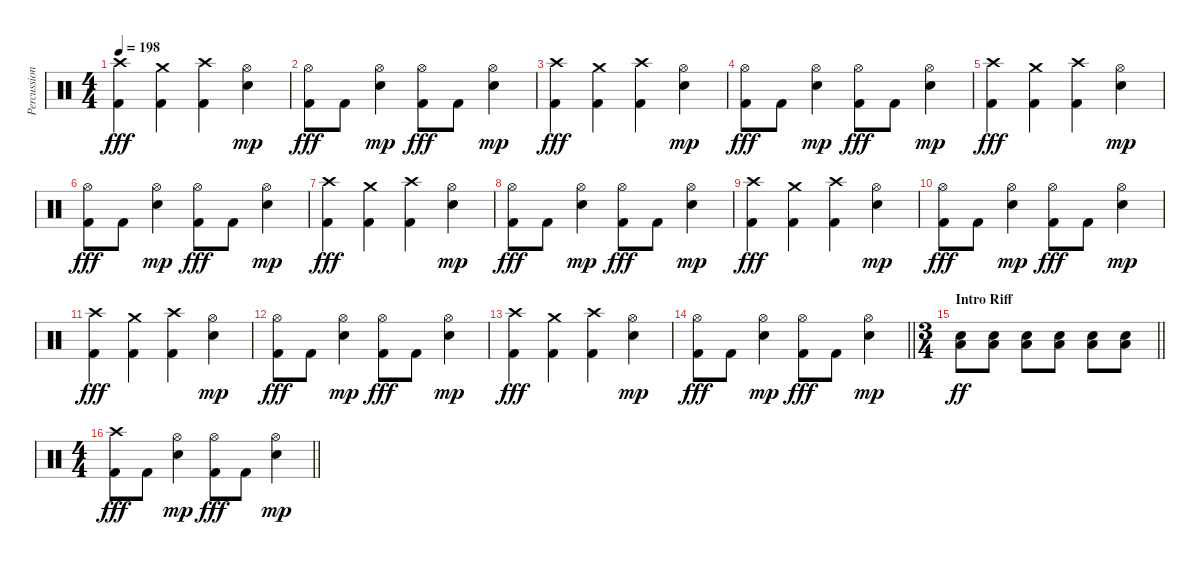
\track ("Percussion" "Percussion") {instrument percussion}
\staff {score}
\articulation defaults
\ts (4 4)
\tempo 198
\clef neutral
\ks c
("Crash high (hit)" "Kick (hit) 2").4{dy fff} ("Crash medium (hit)" "Kick (hit) 2").4 ("Crash high (hit)" "Kick (hit) 2").4 ("Hi-Hat (open)" "Snare (hit) 2").4{dy mp} |
("Hi-Hat (open)" "Kick (hit) 2").8{dy fff} "Kick (hit) 2".8 ("Hi-Hat (open)" "Snare (hit) 2").4{dy mp} ("Hi-Hat (open)" "Kick (hit) 2").8{dy fff} "Kick (hit) 2".8 ("Hi-Hat (open)" "Snare (hit) 2").4{dy mp} |
("Crash high (hit)" "Kick (hit) 2").4{dy fff} ("Crash medium (hit)" "Kick (hit) 2").4 ("Crash high (hit)" "Kick (hit) 2").4 ("Hi-Hat (open)" "Snare (hit) 2").4{dy mp} |
("Hi-Hat (open)" "Kick (hit) 2").8{dy fff} "Kick (hit) 2".8 ("Hi-Hat (open)" "Snare (hit) 2").4{dy mp} ("Hi-Hat (open)" "Kick (hit) 2").8{dy fff} "Kick (hit) 2".8 ("Hi-Hat (open)" "Snare (hit) 2").4{dy mp} |
("Crash high (hit)" "Kick (hit) 2").4{dy fff} ("Crash medium (hit)" "Kick (hit) 2").4 ("Crash high (hit)" "Kick (hit) 2").4 ("Hi-Hat (open)" "Snare (hit) 2").4{dy mp} |
("Hi-Hat (open)" "Kick (hit) 2").8{dy fff} "Kick (hit) 2".8 ("Hi-Hat (open)" "Snare (hit) 2").4{dy mp} ("Hi-Hat (open)" "Kick (hit) 2").8{dy fff} "Kick (hit) 2".8 ("Hi-Hat (open)" "Snare (hit) 2").4{dy mp} |
("Crash high (hit)" "Kick (hit) 2").4{dy fff} ("Crash medium (hit)" "Kick (hit) 2").4 ("Crash high (hit)" "Kick (hit) 2").4 ("Hi-Hat (open)" "Snare (hit) 2").4{dy mp} |
("Hi-Hat (open)" "Kick (hit) 2").8{dy fff} "Kick (hit) 2".8 ("Hi-Hat (open)" "Snare (hit) 2").4{dy mp} ("Hi-Hat (open)" "Kick (hit) 2").8{dy fff} "Kick (hit) 2".8 ("Hi-Hat (open)" "Snare (hit) 2").4{dy mp} |
("Crash high (hit)" "Kick (hit) 2").4{dy fff} ("Crash medium (hit)" "Kick (hit) 2").4 ("Crash high (hit)" "Kick (hit) 2").4 ("Hi-Hat (open)" "Snare (hit) 2").4{dy mp} |
("Hi-Hat (open)" "Kick (hit) 2").8{dy fff} "Kick (hit) 2".8 ("Hi-Hat (open)" "Snare (hit) 2").4{dy mp} ("Hi-Hat (open)" "Kick (hit) 2").8{dy fff} "Kick (hit) 2".8 ("Hi-Hat (open)" "Snare (hit) 2").4{dy mp} |
("Crash high (hit)" "Kick (hit) 2").4{dy fff} ("Crash medium (hit)" "Kick (hit) 2").4 ("Crash high (hit)" "Kick (hit) 2").4 ("Hi-Hat (open)" "Snare (hit) 2").4{dy mp} |
("Hi-Hat (open)" "Kick (hit) 2").8{dy fff} "Kick (hit) 2".8 ("Hi-Hat (open)" "Snare (hit) 2").4{dy mp} ("Hi-Hat (open)" "Kick (hit) 2").8{dy fff} "Kick (hit) 2".8 ("Hi-Hat (open)" "Snare (hit) 2").4{dy mp} |
("Crash high (hit)" "Kick (hit) 2").4{dy fff} ("Crash medium (hit)" "Kick (hit) 2").4 ("Crash high (hit)" "Kick (hit) 2").4 ("Hi-Hat (open)" "Snare (hit) 2").4{dy mp} |
\barLineRight lightlight
("Hi-Hat (open)" "Kick (hit) 2").8{dy fff} "Kick (hit) 2".8 ("Hi-Hat (open)" "Snare (hit) 2").4{dy mp} ("Hi-Hat (open)" "Kick (hit) 2").8{dy fff} "Kick (hit) 2".8 ("Hi-Hat (open)" "Snare (hit) 2").4{dy mp} |
\ts (3 4)
\section ("" "Intro Riff")
\barLineRight lightlight
("Low Floor Tom (hit)" "Snare (hit) 2").8{dy ff} ("Low Floor Tom (hit)" "Snare (hit) 2").8 ("Low Floor Tom (hit)" "Snare (hit) 2").8 ("Low Floor Tom (hit)" "Snare (hit) 2").8 ("Low Floor Tom (hit)" "Snare (hit) 2").8 ("Low Floor Tom (hit)" "Snare (hit) 2").8 |
\ts (4 4)
\barLineRight lightlight
("Crash high (hit)" "Kick (hit) 2").8{dy fff} "Kick (hit) 2".8 ("Hi-Hat (open)" "Snare (hit) 2").4{dy mp} ("Hi-Hat (open)" "Kick (hit) 2").8{dy fff} "Kick (hit) 2".8 ("Hi-Hat (open)" "Snare (hit) 2").4{dy mp}
